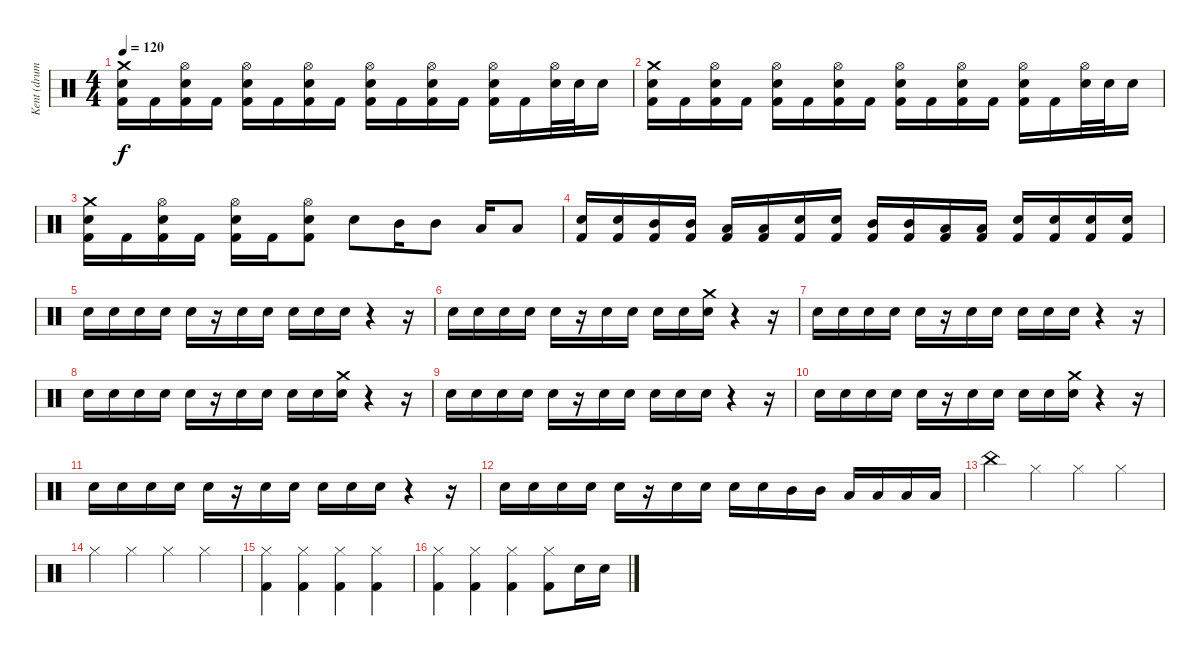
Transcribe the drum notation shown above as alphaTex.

\track ("Kent (drums)" "Kent (drum") {instrument percussion}
\staff {score}
\articulation defaults
\ts (4 4)
\tempo 120
\clef neutral
\ks c
("Crash medium (hit)" "Snare (hit) 2" "Kick (hit) 2").16{dy f} "Kick (hit) 2".16 ("Hi-Hat (open)" "Snare (hit) 2" "Kick (hit) 2").16 "Kick (hit) 2".16 ("Hi-Hat (open)" "Snare (hit) 2" "Kick (hit) 2").16 "Kick (hit) 2".16 ("Hi-Hat (open)" "Snare (hit) 2" "Kick (hit) 2").16 "Kick (hit) 2".16 ("Hi-Hat (open)" "Snare (hit) 2" "Kick (hit) 2").16 "Kick (hit) 2".16 ("Hi-Hat (open)" "Snare (hit) 2" "Kick (hit) 2").16 "Kick (hit) 2".16 ("Hi-Hat (open)" "Snare (hit) 2" "Kick (hit) 2").16 "Kick (hit) 2".16 ("Hi-Hat (open)" "Snare (hit) 2").32 "Snare (hit) 2".32 "Snare (hit) 2".16 |
("Crash medium (hit)" "Snare (hit) 2" "Kick (hit) 2").16 "Kick (hit) 2".16 ("Hi-Hat (open)" "Snare (hit) 2" "Kick (hit) 2").16 "Kick (hit) 2".16 ("Hi-Hat (open)" "Snare (hit) 2" "Kick (hit) 2").16 "Kick (hit) 2".16 ("Hi-Hat (open)" "Snare (hit) 2" "Kick (hit) 2").16 "Kick (hit) 2".16 ("Hi-Hat (open)" "Snare (hit) 2" "Kick (hit) 2").16 "Kick (hit) 2".16 ("Hi-Hat (open)" "Snare (hit) 2" "Kick (hit) 2").16 "Kick (hit) 2".16 ("Hi-Hat (open)" "Snare (hit) 2" "Kick (hit) 2").16 "Kick (hit) 2".16 ("Hi-Hat (open)" "Snare (hit) 2").32 "Snare (hit) 2".32 "Snare (hit) 2".16 |
("Crash medium (hit)" "Snare (hit) 2" "Kick (hit) 2").16 "Kick (hit) 2".16 ("Hi-Hat (open)" "Snare (hit) 2" "Kick (hit) 2").16 "Kick (hit) 2".16 ("Hi-Hat (open)" "Snare (hit) 2" "Kick (hit) 2").16 "Kick (hit) 2".16 ("Hi-Hat (open)" "Snare (hit) 2" "Kick (hit) 2").8 "Snare (hit) 2".8 "Mid Tom (hit)".16 "Mid Tom (hit)".8 "Low Tom (hit)".16 "Low Tom (hit)".8 |
("Snare (hit) 2" "Kick (hit) 2").16 ("Snare (hit) 2" "Kick (hit) 2").16 ("Mid Tom (hit)" "Kick (hit) 2").16 ("Mid Tom (hit)" "Kick (hit) 2").16 ("Low Tom (hit)" "Kick (hit) 2").16 ("Low Tom (hit)" "Kick (hit) 2").16 ("Snare (hit) 2" "Kick (hit) 2").16 ("Snare (hit) 2" "Kick (hit) 2").16 ("Mid Tom (hit)" "Kick (hit) 2").16 ("Mid Tom (hit)" "Kick (hit) 2").16 ("Low Tom (hit)" "Kick (hit) 2").16 ("Low Tom (hit)" "Kick (hit) 2").16 ("Snare (hit) 2" "Kick (hit) 2").16 ("Snare (hit) 2" "Kick (hit) 2").16 ("Snare (hit) 2" "Kick (hit) 2").16 ("Snare (hit) 2" "Kick (hit) 2").16 |
"Snare (hit) 2".16 "Snare (hit) 2".16 "Snare (hit) 2".16 "Snare (hit) 2".16 "Snare (hit) 2".16 r.16 "Snare (hit) 2".16 "Snare (hit) 2".16 "Snare (hit) 2".16 "Snare (hit) 2".16 "Snare (hit) 2".16 r.4 r.16 |
"Snare (hit) 2".16 "Snare (hit) 2".16 "Snare (hit) 2".16 "Snare (hit) 2".16 "Snare (hit) 2".16 r.16 "Snare (hit) 2".16 "Snare (hit) 2".16 "Snare (hit) 2".16 "Snare (hit) 2".16 ("Crash medium (hit)" "Snare (hit) 2").16 r.4 r.16 |
"Snare (hit) 2".16 "Snare (hit) 2".16 "Snare (hit) 2".16 "Snare (hit) 2".16 "Snare (hit) 2".16 r.16 "Snare (hit) 2".16 "Snare (hit) 2".16 "Snare (hit) 2".16 "Snare (hit) 2".16 "Snare (hit) 2".16 r.4 r.16 |
"Snare (hit) 2".16 "Snare (hit) 2".16 "Snare (hit) 2".16 "Snare (hit) 2".16 "Snare (hit) 2".16 r.16 "Snare (hit) 2".16 "Snare (hit) 2".16 "Snare (hit) 2".16 "Snare (hit) 2".16 ("Crash medium (hit)" "Snare (hit) 2").16 r.4 r.16 |
"Snare (hit) 2".16 "Snare (hit) 2".16 "Snare (hit) 2".16 "Snare (hit) 2".16 "Snare (hit) 2".16 r.16 "Snare (hit) 2".16 "Snare (hit) 2".16 "Snare (hit) 2".16 "Snare (hit) 2".16 "Snare (hit) 2".16 r.4 r.16 |
"Snare (hit) 2".16 "Snare (hit) 2".16 "Snare (hit) 2".16 "Snare (hit) 2".16 "Snare (hit) 2".16 r.16 "Snare (hit) 2".16 "Snare (hit) 2".16 "Snare (hit) 2".16 "Snare (hit) 2".16 ("Crash medium (hit)" "Snare (hit) 2").16 r.4 r.16 |
"Snare (hit) 2".16 "Snare (hit) 2".16 "Snare (hit) 2".16 "Snare (hit) 2".16 "Snare (hit) 2".16 r.16 "Snare (hit) 2".16 "Snare (hit) 2".16 "Snare (hit) 2".16 "Snare (hit) 2".16 "Snare (hit) 2".16 r.4 r.16 |
"Snare (hit) 2".16 "Snare (hit) 2".16 "Snare (hit) 2".16 "Snare (hit) 2".16 "Snare (hit) 2".16 r.16 "Snare (hit) 2".16 "Snare (hit) 2".16 "Snare (hit) 2".16 "Snare (hit) 2".16 "Mid Tom (hit)".16 "Mid Tom (hit)".16 "Low Tom (hit)".16 "Low Tom (hit)".16 "Low Floor Tom (hit)".16 "Low Floor Tom (hit)".16 |
"China (hit)".4 "Hi-Hat (closed)".4 "Hi-Hat (closed)".4 "Hi-Hat (closed)".4 |
"Hi-Hat (closed)".4 "Hi-Hat (closed)".4 "Hi-Hat (closed)".4 "Hi-Hat (closed)".4 |
("Hi-Hat (closed)" "Kick (hit) 2").4 ("Hi-Hat (closed)" "Kick (hit) 2").4 ("Hi-Hat (closed)" "Kick (hit) 2").4 ("Hi-Hat (closed)" "Kick (hit) 2").4 |
("Hi-Hat (closed)" "Kick (hit) 2").4 ("Hi-Hat (closed)" "Kick (hit) 2").4 ("Hi-Hat (closed)" "Kick (hit) 2").4 ("Hi-Hat (closed)" "Kick (hit) 2").8 "Snare (hit) 2".16 "Snare (hit) 2".16
